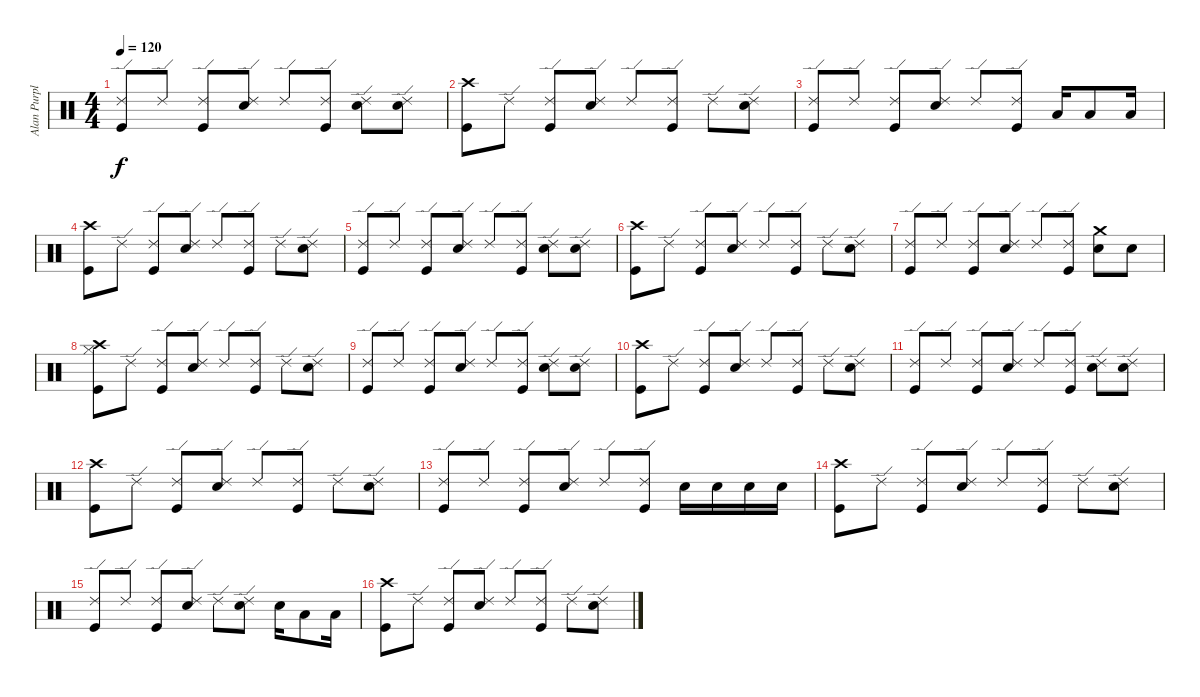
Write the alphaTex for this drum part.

\track ("Alan Purple" "Alan Purpl") {instrument percussion}
\staff {score}
\articulation defaults
\ts (4 4)
\tempo 120
\clef neutral
\ks c
("Ride (edge) 2" "Kick (hit)").8{dy f} "Ride (edge) 2".8 ("Ride (edge) 2" "Kick (hit)").8 ("Ride (edge) 2" "Snare (hit) 2").8 "Ride (edge) 2".8 ("Ride (edge) 2" "Kick (hit)").8 ("Ride (edge) 2" "Electric Snare (hit)").8 ("Ride (edge) 2" "Snare (hit) 2").8 |
("Crash high (hit)" "Kick (hit)").8 "Ride (edge) 2".8 ("Ride (edge) 2" "Kick (hit)").8 ("Ride (edge) 2" "Snare (hit) 2").8 "Ride (edge) 2".8 ("Ride (edge) 2" "Kick (hit)").8 "Ride (edge) 2".8 ("Ride (edge) 2" "Snare (hit) 2").8 |
("Ride (edge) 2" "Kick (hit)").8 "Ride (edge) 2".8 ("Ride (edge) 2" "Kick (hit)").8 ("Ride (edge) 2" "Snare (hit) 2").8 "Ride (edge) 2".8 ("Ride (edge) 2" "Kick (hit)").8 "Low Tom (hit)".16 "Low Tom (hit)".8 "Low Tom (hit)".16 |
("Crash high (hit)" "Kick (hit)").8 "Ride (edge) 2".8 ("Ride (edge) 2" "Kick (hit)").8 ("Ride (edge) 2" "Snare (hit) 2").8 "Ride (edge) 2".8 ("Ride (edge) 2" "Kick (hit)").8 "Ride (edge) 2".8 ("Ride (edge) 2" "Snare (hit) 2").8 |
("Ride (edge) 2" "Kick (hit)").8 "Ride (edge) 2".8 ("Ride (edge) 2" "Kick (hit)").8 ("Ride (edge) 2" "Snare (hit) 2").8 "Ride (edge) 2".8 ("Ride (edge) 2" "Kick (hit)").8 ("Ride (edge) 2" "Electric Snare (hit)").8 ("Ride (edge) 2" "Snare (hit) 2").8 |
("Crash high (hit)" "Kick (hit)").8{volume 15} "Ride (edge) 2".8 ("Ride (edge) 2" "Kick (hit)").8 ("Ride (edge) 2" "Snare (hit) 2").8 "Ride (edge) 2".8 ("Ride (edge) 2" "Kick (hit)").8 "Ride (edge) 2".8 ("Ride (edge) 2" "Snare (hit) 2").8 |
("Ride (edge) 2" "Kick (hit)").8 "Ride (edge) 2".8 ("Ride (edge) 2" "Kick (hit)").8 ("Ride (edge) 2" "Snare (hit) 2").8 "Ride (edge) 2".8 ("Ride (edge) 2" "Kick (hit)").8 ("Crash medium (hit)" "Electric Snare (hit)").8 "Snare (hit) 2".8 |
("Crash high (hit)" "Hi-Hat (closed)" "Kick (hit)").8{volume 14} "Ride (edge) 2".8 ("Ride (edge) 2" "Kick (hit)").8 ("Ride (edge) 2" "Snare (hit) 2").8 "Ride (edge) 2".8 ("Ride (edge) 2" "Kick (hit)").8 "Ride (edge) 2".8 ("Ride (edge) 2" "Snare (hit) 2").8 |
("Ride (edge) 2" "Kick (hit)").8 "Ride (edge) 2".8 ("Ride (edge) 2" "Kick (hit)").8 ("Ride (edge) 2" "Snare (hit) 2").8 "Ride (edge) 2".8 ("Ride (edge) 2" "Kick (hit)").8 ("Ride (edge) 2" "Electric Snare (hit)").8 ("Ride (edge) 2" "Snare (hit) 2").8 |
("Crash high (hit)" "Kick (hit)").8{volume 13} "Ride (edge) 2".8 ("Ride (edge) 2" "Kick (hit)").8 ("Ride (edge) 2" "Snare (hit) 2").8 "Ride (edge) 2".8 ("Ride (edge) 2" "Kick (hit)").8 "Ride (edge) 2".8 ("Ride (edge) 2" "Snare (hit) 2").8 |
("Ride (edge) 2" "Kick (hit)").8 "Ride (edge) 2".8 ("Ride (edge) 2" "Kick (hit)").8 ("Ride (edge) 2" "Snare (hit) 2").8 "Ride (edge) 2".8 ("Ride (edge) 2" "Kick (hit)").8 ("Ride (edge) 2" "Electric Snare (hit)").8 ("Ride (edge) 2" "Snare (hit) 2").8 |
("Crash high (hit)" "Kick (hit)").8{volume 12} "Ride (edge) 2".8 ("Ride (edge) 2" "Kick (hit)").8 ("Ride (edge) 2" "Snare (hit) 2").8 "Ride (edge) 2".8 ("Ride (edge) 2" "Kick (hit)").8 "Ride (edge) 2".8 ("Ride (edge) 2" "Snare (hit) 2").8 |
("Ride (edge) 2" "Kick (hit)").8 "Ride (edge) 2".8 ("Ride (edge) 2" "Kick (hit)").8 ("Ride (edge) 2" "Snare (hit) 2").8 "Ride (edge) 2".8 ("Ride (edge) 2" "Kick (hit)").8 "Electric Snare (hit)".16 "Electric Snare (hit)".16 "Electric Snare (hit)".16 "Electric Snare (hit)".16 |
("Crash high (hit)" "Kick (hit)").8{volume 11} "Ride (edge) 2".8 ("Ride (edge) 2" "Kick (hit)").8 ("Ride (edge) 2" "Snare (hit) 2").8 "Ride (edge) 2".8 ("Ride (edge) 2" "Kick (hit)").8 "Ride (edge) 2".8 ("Ride (edge) 2" "Snare (hit) 2").8 |
("Ride (edge) 2" "Kick (hit)").8 "Ride (edge) 2".8 ("Ride (edge) 2" "Kick (hit)").8 ("Ride (edge) 2" "Snare (hit) 2").8 "Ride (edge) 2".8 ("Ride (edge) 2" "Electric Snare (hit)").8 "Electric Snare (hit)".16 "Low Tom (hit)".8 "Low Tom (hit)".16 |
("Crash high (hit)" "Kick (hit)").8{volume 10} "Ride (edge) 2".8 ("Ride (edge) 2" "Kick (hit)").8 ("Ride (edge) 2" "Snare (hit) 2").8 "Ride (edge) 2".8 ("Ride (edge) 2" "Kick (hit)").8 "Ride (edge) 2".8 ("Ride (edge) 2" "Snare (hit) 2").8
